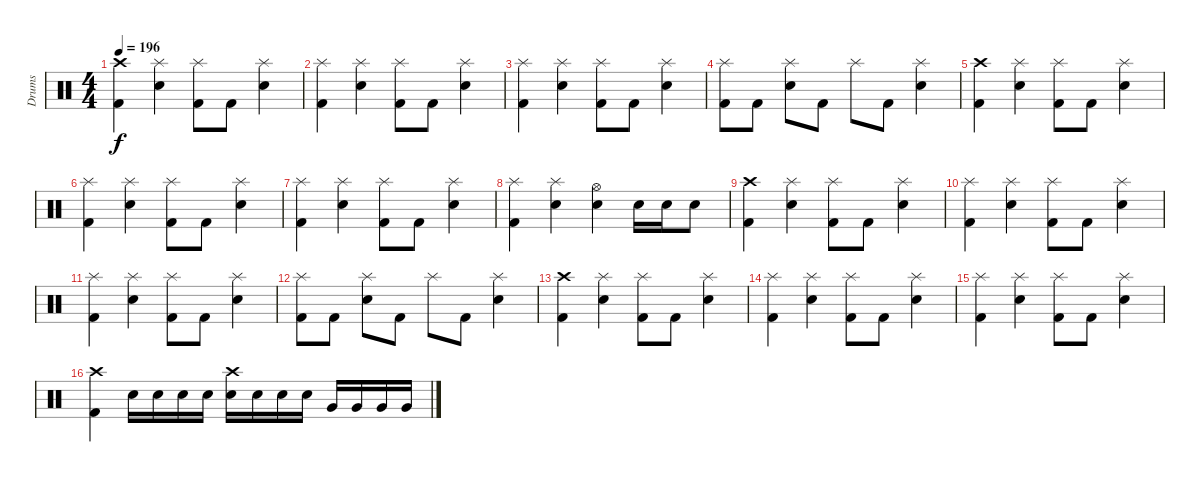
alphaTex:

\track ("Drums" "Drums") {instrument percussion}
\staff {score}
\articulation defaults
\ts (4 4)
\tempo 196
\clef neutral
\ks c
("Crash high (hit)" "Kick (hit) 2").4{dy f} ("Splash (hit)" "Snare (hit) 2").4 ("Splash (hit)" "Kick (hit) 2").8 "Kick (hit) 2".8 ("Splash (hit)" "Snare (hit) 2").4 |
("Splash (hit)" "Kick (hit) 2").4 ("Splash (hit)" "Snare (hit) 2").4 ("Splash (hit)" "Kick (hit) 2").8 "Kick (hit) 2".8 ("Splash (hit)" "Snare (hit) 2").4 |
("Splash (hit)" "Kick (hit) 2").4 ("Splash (hit)" "Snare (hit) 2").4 ("Splash (hit)" "Kick (hit) 2").8 "Kick (hit) 2".8 ("Splash (hit)" "Snare (hit) 2").4 |
("Splash (hit)" "Kick (hit) 2").8 "Kick (hit) 2".8 ("Splash (hit)" "Snare (hit) 2").8 "Kick (hit) 2".8 "Splash (hit)".8 "Kick (hit) 2".8 ("Splash (hit)" "Snare (hit) 2").4 |
("Crash high (hit)" "Kick (hit) 2").4 ("Splash (hit)" "Snare (hit) 2").4 ("Splash (hit)" "Kick (hit) 2").8 "Kick (hit) 2".8 ("Splash (hit)" "Snare (hit) 2").4 |
("Splash (hit)" "Kick (hit) 2").4 ("Splash (hit)" "Snare (hit) 2").4 ("Splash (hit)" "Kick (hit) 2").8 "Kick (hit) 2".8 ("Splash (hit)" "Snare (hit) 2").4 |
("Splash (hit)" "Kick (hit) 2").4 ("Splash (hit)" "Snare (hit) 2").4 ("Splash (hit)" "Kick (hit) 2").8 "Kick (hit) 2".8 ("Splash (hit)" "Snare (hit) 2").4 |
("Splash (hit)" "Kick (hit) 2").4 ("Splash (hit)" "Snare (hit) 2").4 ("Hi-Hat (open)" "Snare (hit) 2").4 "Snare (hit) 2".16 "Snare (hit) 2".16 "Snare (hit) 2".8 |
("Crash high (hit)" "Kick (hit) 2").4 ("Splash (hit)" "Snare (hit) 2").4 ("Splash (hit)" "Kick (hit) 2").8 "Kick (hit) 2".8 ("Splash (hit)" "Snare (hit) 2").4 |
("Splash (hit)" "Kick (hit) 2").4 ("Splash (hit)" "Snare (hit) 2").4 ("Splash (hit)" "Kick (hit) 2").8 "Kick (hit) 2".8 ("Splash (hit)" "Snare (hit) 2").4 |
("Splash (hit)" "Kick (hit) 2").4 ("Splash (hit)" "Snare (hit) 2").4 ("Splash (hit)" "Kick (hit) 2").8 "Kick (hit) 2".8 ("Splash (hit)" "Snare (hit) 2").4 |
("Splash (hit)" "Kick (hit) 2").8 "Kick (hit) 2".8 ("Splash (hit)" "Snare (hit) 2").8 "Kick (hit) 2".8 "Splash (hit)".8 "Kick (hit) 2".8 ("Splash (hit)" "Snare (hit) 2").4 |
("Crash high (hit)" "Kick (hit) 2").4 ("Splash (hit)" "Snare (hit) 2").4 ("Splash (hit)" "Kick (hit) 2").8 "Kick (hit) 2".8 ("Splash (hit)" "Snare (hit) 2").4 |
("Splash (hit)" "Kick (hit) 2").4 ("Splash (hit)" "Snare (hit) 2").4 ("Splash (hit)" "Kick (hit) 2").8 "Kick (hit) 2".8 ("Splash (hit)" "Snare (hit) 2").4 |
("Splash (hit)" "Kick (hit) 2").4 ("Splash (hit)" "Snare (hit) 2").4 ("Splash (hit)" "Kick (hit) 2").8 "Kick (hit) 2".8 ("Splash (hit)" "Snare (hit) 2").4 |
("Crash high (hit)" "Kick (hit) 2").4 "Snare (hit) 2".16 "Snare (hit) 2".16 "Snare (hit) 2".16 "Snare (hit) 2".16 ("Crash high (hit)" "Electric Snare (hit)").16 "Electric Snare (hit)".16 "Electric Snare (hit)".16 "Electric Snare (hit)".16 "Very Low Tom (hit)".16 "Very Low Tom (hit)".16 "Very Low Tom (hit)".16 "Very Low Tom (hit)".16
